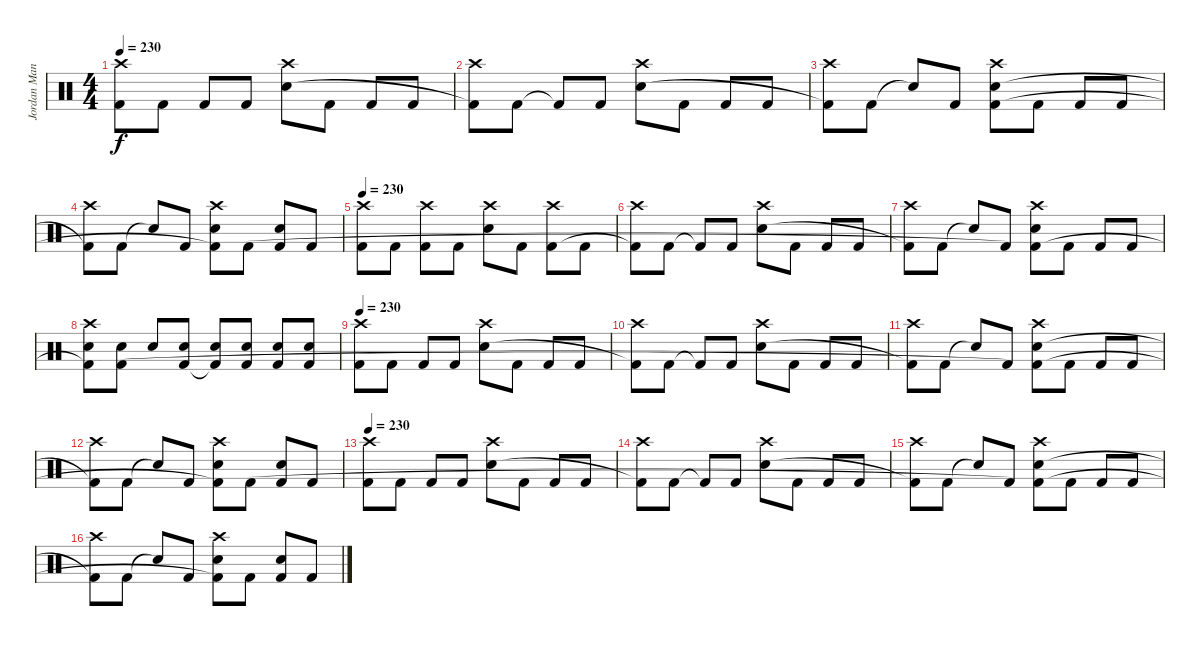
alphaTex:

\track ("Jordan Mancino" "Jordan Man") {instrument percussion}
\staff {score}
\articulation defaults
\ts (4 4)
\tempo 230
\clef neutral
\ks c
("Crash high (hit)" "Kick (hit) 2").8{dy f} "Kick (hit) 2".8 "Kick (hit) 2".8 "Kick (hit) 2".8 ("Crash high (hit)" "Electric Snare (hit)").8 "Kick (hit) 2".8 "Kick (hit) 2".8 "Kick (hit) 2".8 |
("Crash high (hit)" "Kick (hit) 2"{t}).8 "Kick (hit) 2".8 "Kick (hit) 2"{t}.8 "Kick (hit) 2".8 ("Crash high (hit)" "Electric Snare (hit)").8 "Kick (hit) 2".8 "Kick (hit) 2".8 "Kick (hit) 2".8 |
("Crash high (hit)" "Kick (hit) 2"{t}).8 "Kick (hit) 2".8 "Snare (hit)"{t}.8 "Kick (hit) 2".8 ("Crash high (hit)" "Electric Snare (hit)" "Kick (hit) 2"{t}).8 "Kick (hit) 2".8 "Kick (hit) 2".8 "Kick (hit) 2".8 |
("Crash high (hit)" "Kick (hit) 2"{t}).8 "Kick (hit) 2".8 "Snare (hit)"{t}.8 "Kick (hit) 2".8 ("Crash high (hit)" "Electric Snare (hit)" "Kick (hit) 2"{t}).8 "Kick (hit) 2".8 ("Electric Snare (hit)" "Kick (hit) 2").8 "Kick (hit) 2".8 |
\tempo 230
("Crash high (hit)" "Kick (hit) 2").8 "Kick (hit) 2".8 ("Crash high (hit)" "Kick (hit) 2").8 "Kick (hit) 2".8 ("Crash high (hit)" "Electric Snare (hit)").8 "Kick (hit) 2".8 ("Crash high (hit)" "Kick (hit) 2").8 "Kick (hit) 2".8 |
("Crash high (hit)" "Kick (hit) 2"{t}).8 "Kick (hit) 2".8 "Kick (hit) 2"{t}.8 "Kick (hit) 2".8 ("Crash high (hit)" "Electric Snare (hit)").8 "Kick (hit) 2".8 "Kick (hit) 2".8 "Kick (hit) 2".8 |
("Crash high (hit)" "Kick (hit) 2"{t}).8 "Kick (hit) 2".8 "Snare (hit)"{t}.8 "Kick (hit) 2".8 ("Crash high (hit)" "Electric Snare (hit)" "Kick (hit) 2"{t}).8 "Kick (hit) 2".8 "Kick (hit) 2".8 "Kick (hit) 2".8 |
("Crash high (hit)" "Electric Snare (hit)" "Kick (hit) 2"{t}).8 ("Electric Snare (hit)" "Kick (hit) 2").8 "Electric Snare (hit)".8 ("Electric Snare (hit)" "Kick (hit) 2").8 ("Electric Snare (hit)" "Kick (hit) 2"{t}).8 ("Electric Snare (hit)" "Kick (hit) 2").8 ("Electric Snare (hit)" "Kick (hit) 2").8 ("Electric Snare (hit)" "Kick (hit) 2").8 |
\tempo 230
("Crash high (hit)" "Kick (hit) 2").8 "Kick (hit) 2".8 "Kick (hit) 2".8 "Kick (hit) 2".8 ("Crash high (hit)" "Electric Snare (hit)").8 "Kick (hit) 2".8 "Kick (hit) 2".8 "Kick (hit) 2".8 |
("Crash high (hit)" "Kick (hit) 2"{t}).8 "Kick (hit) 2".8 "Kick (hit) 2"{t}.8 "Kick (hit) 2".8 ("Crash high (hit)" "Electric Snare (hit)").8 "Kick (hit) 2".8 "Kick (hit) 2".8 "Kick (hit) 2".8 |
("Crash high (hit)" "Kick (hit) 2"{t}).8 "Kick (hit) 2".8 "Snare (hit)"{t}.8 "Kick (hit) 2".8 ("Crash high (hit)" "Electric Snare (hit)" "Kick (hit) 2"{t}).8 "Kick (hit) 2".8 "Kick (hit) 2".8 "Kick (hit) 2".8 |
("Crash high (hit)" "Kick (hit) 2"{t}).8 "Kick (hit) 2".8 "Snare (hit)"{t}.8 "Kick (hit) 2".8 ("Crash high (hit)" "Electric Snare (hit)" "Kick (hit) 2"{t}).8 "Kick (hit) 2".8 ("Electric Snare (hit)" "Kick (hit) 2").8 "Kick (hit) 2".8 |
\tempo 230
("Crash high (hit)" "Kick (hit) 2").8 "Kick (hit) 2".8 "Kick (hit) 2".8 "Kick (hit) 2".8 ("Crash high (hit)" "Electric Snare (hit)").8 "Kick (hit) 2".8 "Kick (hit) 2".8 "Kick (hit) 2".8 |
("Crash high (hit)" "Kick (hit) 2"{t}).8 "Kick (hit) 2".8 "Kick (hit) 2"{t}.8 "Kick (hit) 2".8 ("Crash high (hit)" "Electric Snare (hit)").8 "Kick (hit) 2".8 "Kick (hit) 2".8 "Kick (hit) 2".8 |
("Crash high (hit)" "Kick (hit) 2"{t}).8 "Kick (hit) 2".8 "Snare (hit)"{t}.8 "Kick (hit) 2".8 ("Crash high (hit)" "Electric Snare (hit)" "Kick (hit) 2"{t}).8 "Kick (hit) 2".8 "Kick (hit) 2".8 "Kick (hit) 2".8 |
("Crash high (hit)" "Kick (hit) 2"{t}).8 "Kick (hit) 2".8 "Snare (hit)"{t}.8 "Kick (hit) 2".8 ("Crash high (hit)" "Electric Snare (hit)" "Kick (hit) 2"{t}).8 "Kick (hit) 2".8 ("Electric Snare (hit)" "Kick (hit) 2").8 "Kick (hit) 2".8
